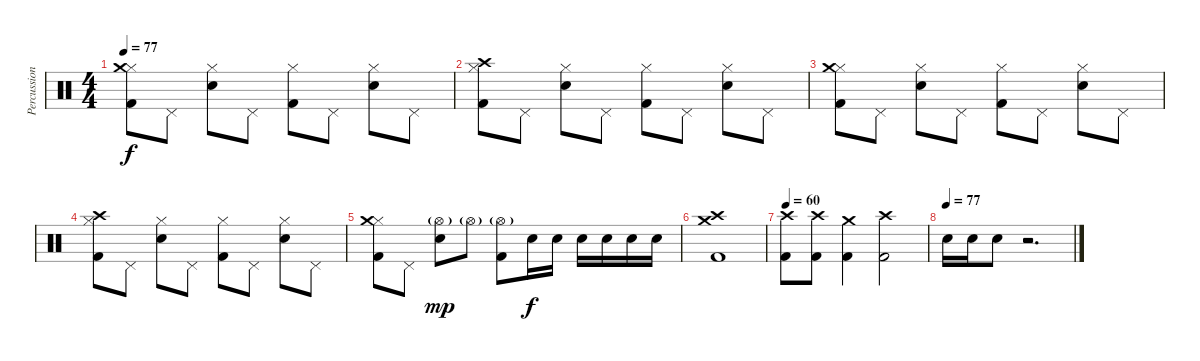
\track ("Percussions" "Percussion") {instrument percussion}
\staff {score}
\articulation defaults
\ts (4 4)
\tempo 77
\clef neutral
\ks c
("Hi-Hat (closed)" "Crash medium (hit)" "Kick (hit) 2").8{dy f} "Pedal Hi-Hat (hit)".8 ("Hi-Hat (closed)" "Snare (hit) 2").8 "Pedal Hi-Hat (hit)".8 ("Hi-Hat (closed)" "Kick (hit) 2").8 "Pedal Hi-Hat (hit)".8 ("Hi-Hat (closed)" "Snare (hit) 2").8 "Pedal Hi-Hat (hit)".8 |
("Hi-Hat (closed)" "Crash high (hit)" "Kick (hit) 2").8 "Pedal Hi-Hat (hit)".8 ("Hi-Hat (closed)" "Snare (hit) 2").8 "Pedal Hi-Hat (hit)".8 ("Hi-Hat (closed)" "Kick (hit) 2").8 "Pedal Hi-Hat (hit)".8 ("Hi-Hat (closed)" "Snare (hit) 2").8 "Pedal Hi-Hat (hit)".8 |
("Hi-Hat (closed)" "Crash medium (hit)" "Kick (hit) 2").8 "Pedal Hi-Hat (hit)".8 ("Hi-Hat (closed)" "Snare (hit) 2").8 "Pedal Hi-Hat (hit)".8 ("Hi-Hat (closed)" "Kick (hit) 2").8 "Pedal Hi-Hat (hit)".8 ("Hi-Hat (closed)" "Snare (hit) 2").8 "Pedal Hi-Hat (hit)".8 |
("Hi-Hat (closed)" "Crash high (hit)" "Kick (hit) 2").8 "Pedal Hi-Hat (hit)".8 ("Hi-Hat (closed)" "Snare (hit) 2").8 "Pedal Hi-Hat (hit)".8 ("Hi-Hat (closed)" "Kick (hit) 2").8 "Pedal Hi-Hat (hit)".8 ("Hi-Hat (closed)" "Snare (hit) 2").8 "Pedal Hi-Hat (hit)".8 |
("Hi-Hat (closed)" "Crash medium (hit)" "Kick (hit) 2").8 "Pedal Hi-Hat (hit)".8 ("Hi-Hat (open)"{g} "Snare (hit) 2").8{dy mp} "Hi-Hat (open)"{g}.8 ("Hi-Hat (open)"{g} "Kick (hit) 2").8 "Snare (hit) 2".16{dy f} "Snare (hit) 2".16 "Snare (hit) 2".16 "Snare (hit) 2".16 "Snare (hit) 2".16 "Snare (hit) 2".16 |
("Crash high (hit)" "Crash medium (hit)" "Kick (hit) 2").1 |
\tempo 60
("Crash high (hit)" "Kick (hit) 2").8 ("Crash high (hit)" "Kick (hit) 2").8 ("Crash medium (hit)" "Kick (hit) 2").4 ("Crash high (hit)" "Kick (hit) 2").2 |
\tempo (77)
"Snare (hit) 2".16 "Snare (hit) 2".16 "Snare (hit) 2".8 r.2{d}
